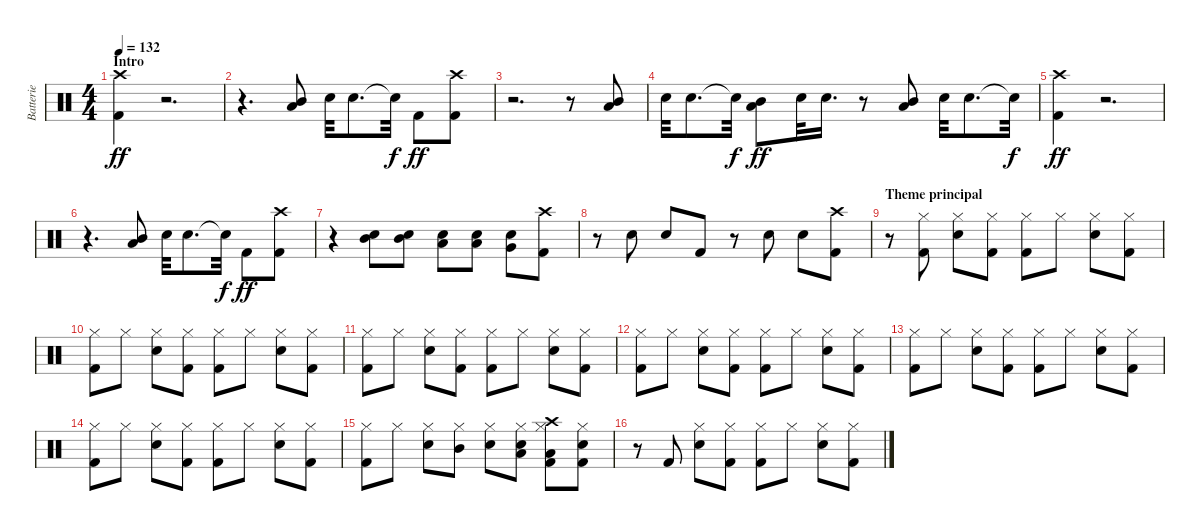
\track ("Batterie" "Batterie") {instrument percussion}
\staff {score}
\articulation defaults
\ts (4 4)
\section ("" "Intro")
\tempo 132
\clef neutral
\ks c
("Kick (hit) 2" "Crash high (hit)").4{dy ff} r.2{d} |
r.4{d} ("Low Tom (hit)" "Mid Tom (hit)").8 "Snare (hit) 2".32 "Snare (hit) 2".8{d} "Snare (hit) 2"{t}.32{dy f} "Kick (hit) 2".8{dy ff} ("Kick (hit) 2" "Crash high (hit)").8 |
r.2{d} r.8 ("Low Tom (hit)" "Mid Tom (hit)").8 |
"Snare (hit) 2".32 "Snare (hit) 2".8{d} "Snare (hit) 2"{t}.32{dy f} ("Low Tom (hit)" "Mid Tom (hit)").8{dy ff} "Snare (hit) 2".32 "Snare (hit) 2".16{d} r.8 ("Low Tom (hit)" "Mid Tom (hit)").8 "Snare (hit) 2".32 "Snare (hit) 2".8{d} "Snare (hit) 2"{t}.32{dy f} |
("Kick (hit) 2" "Crash high (hit)").4{dy ff} r.2{d} |
r.4{d} ("Low Tom (hit)" "Mid Tom (hit)").8 "Snare (hit) 2".32 "Snare (hit) 2".8{d} "Snare (hit) 2"{t}.32{dy f} "Kick (hit) 2".8{dy ff} ("Kick (hit) 2" "Crash high (hit)").8 |
r.4 ("Snare (hit) 2" "Mid Tom (hit)").8 ("Snare (hit) 2" "Mid Tom (hit)").8 ("Snare (hit) 2" "Low Tom (hit)").8 ("Snare (hit) 2" "Low Tom (hit)").8 ("Snare (hit) 2" "Very Low Tom (hit)").8 ("Kick (hit) 2" "Crash high (hit)").8 |
r.8 "Snare (hit) 2".8 "Snare (hit) 2".8 "Kick (hit) 2".8 r.8 "Snare (hit) 2".8 "Snare (hit) 2".8 ("Kick (hit) 2" "Crash high (hit)").8 |
\section ("" "Theme principal")
r.8 ("Kick (hit) 2" "Hi-Hat (closed)").8 ("Snare (hit) 2" "Hi-Hat (closed)").8 ("Kick (hit) 2" "Hi-Hat (closed)").8 ("Kick (hit) 2" "Hi-Hat (closed)").8 "Hi-Hat (closed)".8 ("Snare (hit) 2" "Hi-Hat (closed)").8 ("Kick (hit) 2" "Hi-Hat (closed)").8 |
("Kick (hit) 2" "Hi-Hat (closed)").8 "Hi-Hat (closed)".8 ("Snare (hit) 2" "Hi-Hat (closed)").8 ("Kick (hit) 2" "Hi-Hat (closed)").8 ("Kick (hit) 2" "Hi-Hat (closed)").8 "Hi-Hat (closed)".8 ("Snare (hit) 2" "Hi-Hat (closed)").8 ("Kick (hit) 2" "Hi-Hat (closed)").8 |
("Kick (hit) 2" "Hi-Hat (closed)").8 "Hi-Hat (closed)".8 ("Snare (hit) 2" "Hi-Hat (closed)").8 ("Kick (hit) 2" "Hi-Hat (closed)").8 ("Kick (hit) 2" "Hi-Hat (closed)").8 "Hi-Hat (closed)".8 ("Snare (hit) 2" "Hi-Hat (closed)").8 ("Kick (hit) 2" "Hi-Hat (closed)").8 |
("Kick (hit) 2" "Hi-Hat (closed)").8 "Hi-Hat (closed)".8 ("Snare (hit) 2" "Hi-Hat (closed)").8 ("Kick (hit) 2" "Hi-Hat (closed)").8 ("Kick (hit) 2" "Hi-Hat (closed)").8 "Hi-Hat (closed)".8 ("Snare (hit) 2" "Hi-Hat (closed)").8 ("Kick (hit) 2" "Hi-Hat (closed)").8 |
("Kick (hit) 2" "Hi-Hat (closed)").8 "Hi-Hat (closed)".8 ("Snare (hit) 2" "Hi-Hat (closed)").8 ("Kick (hit) 2" "Hi-Hat (closed)").8 ("Kick (hit) 2" "Hi-Hat (closed)").8 "Hi-Hat (closed)".8 ("Snare (hit) 2" "Hi-Hat (closed)").8 ("Kick (hit) 2" "Hi-Hat (closed)").8 |
("Kick (hit) 2" "Hi-Hat (closed)").8 "Hi-Hat (closed)".8 ("Snare (hit) 2" "Hi-Hat (closed)").8 ("Kick (hit) 2" "Hi-Hat (closed)").8 ("Kick (hit) 2" "Hi-Hat (closed)").8 "Hi-Hat (closed)".8 ("Snare (hit) 2" "Hi-Hat (closed)").8 ("Kick (hit) 2" "Hi-Hat (closed)").8 |
("Kick (hit) 2" "Hi-Hat (closed)").8 "Hi-Hat (closed)".8 ("Snare (hit) 2" "Hi-Hat (closed)").8 ("Hi-Hat (closed)" "Mid Tom (hit)").8 ("Snare (hit) 2" "Hi-Hat (closed)").8 ("Snare (hit) 2" "Hi-Hat (closed)" "Low Tom (hit)").8 ("Kick (hit) 2" "Hi-Hat (closed)" "Low Tom (hit)" "Crash high (hit)").8 ("Kick (hit) 2" "Snare (hit) 2" "Hi-Hat (closed)").8 |
r.8 "Kick (hit) 2".8 ("Snare (hit) 2" "Hi-Hat (closed)").8 ("Kick (hit) 2" "Hi-Hat (closed)").8 ("Kick (hit) 2" "Hi-Hat (closed)").8 "Hi-Hat (closed)".8 ("Snare (hit) 2" "Hi-Hat (closed)").8 ("Kick (hit) 2" "Hi-Hat (closed)").8
